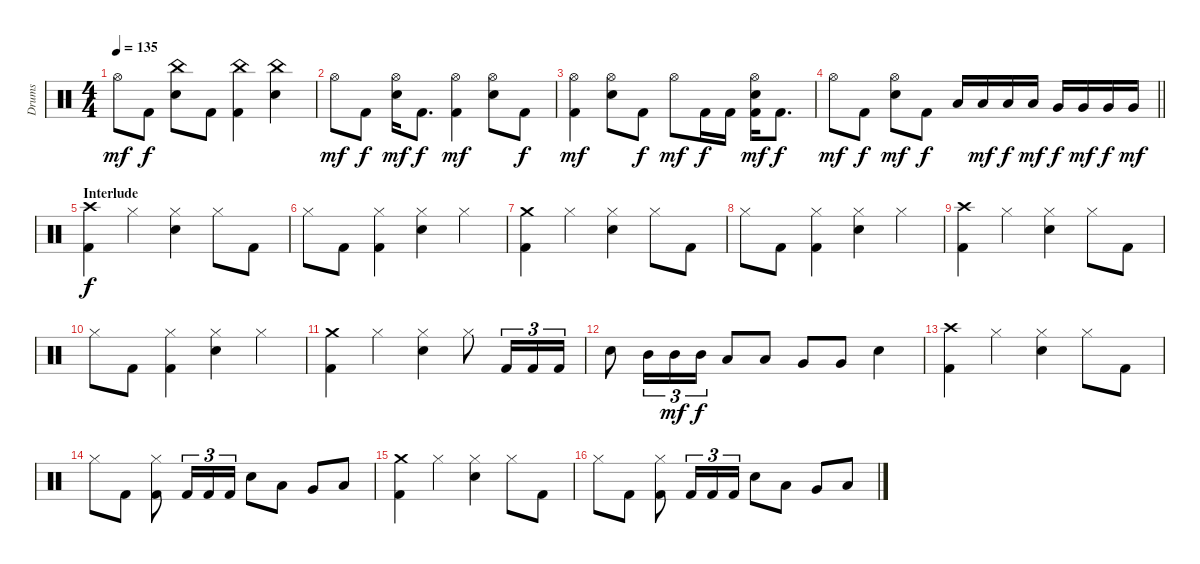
\track ("Drums" "Drums") {instrument percussion}
\staff {score}
\articulation defaults
\ts (4 4)
\tempo 135
\clef neutral
\ks c "Hi-Hat (open)".8{dy mf} "Kick (hit) 2".8{dy f}
("China (hit)" "Electric Snare (hit)").8 "Kick (hit) 2".8 ("Kick (hit) 2" "China (hit)").4 ("China (hit)" "Electric Snare (hit)").4 |
"Hi-Hat (open)".8{dy mf} "Kick (hit) 2".8{dy f} ("Hi-Hat (open)" "Electric Snare (hit)").16{dy mf} "Kick (hit) 2".8{d dy f} ("Kick (hit) 2" "Hi-Hat (open)").4{dy mf} ("Hi-Hat (open)" "Electric Snare (hit)").8 "Kick (hit) 2".8{dy f} |
("Kick (hit) 2" "Hi-Hat (open)").4{dy mf} ("Hi-Hat (open)" "Electric Snare (hit)").8 "Kick (hit) 2".8{dy f} "Hi-Hat (open)".8{dy mf} "Kick (hit) 2".16{dy f} "Kick (hit) 2".16 ("Kick (hit) 2" "Hi-Hat (open)" "Electric Snare (hit)").16{dy mf} "Kick (hit) 2".8{d dy f} |
\barLineRight lightlight "Hi-Hat (open)".8{dy mf} "Kick (hit) 2".8{dy f}
("Hi-Hat (open)" "Electric Snare (hit)").8{dy mf} "Kick (hit) 2".8{dy f} "Low Tom (hit)".16 "Low Tom (hit)".16{dy mf} "Low Tom (hit)".16{dy f} "Low Tom (hit)".16{dy mf} "Very Low Tom (hit)".16{dy f} "Very Low Tom (hit)".16{dy mf} "Very Low Tom (hit)".16{dy f} "Very Low Tom (hit)".16{dy mf} |
\section ("" "Interlude")
("Kick (hit) 2" "Crash high (hit)").4{dy f} "Hi-Hat (closed)".4 ("Hi-Hat (closed)" "Electric Snare (hit)").4 "Hi-Hat (closed)".8 "Kick (hit) 2".8 |
"Hi-Hat (closed)".8 "Kick (hit) 2".8 ("Kick (hit) 2" "Hi-Hat (closed)").4 ("Hi-Hat (closed)" "Electric Snare (hit)").4 "Hi-Hat (closed)".4 |
("Kick (hit) 2" "Crash medium (hit)").4 "Hi-Hat (closed)".4 ("Hi-Hat (closed)" "Electric Snare (hit)").4 "Hi-Hat (closed)".8 "Kick (hit) 2".8 |
"Hi-Hat (closed)".8 "Kick (hit) 2".8 ("Kick (hit) 2" "Hi-Hat (closed)").4 ("Hi-Hat (closed)" "Electric Snare (hit)").4 "Hi-Hat (closed)".4 |
("Kick (hit) 2" "Crash high (hit)").4 "Hi-Hat (closed)".4 ("Hi-Hat (closed)" "Electric Snare (hit)").4 "Hi-Hat (closed)".8 "Kick (hit) 2".8 |
"Hi-Hat (closed)".8 "Kick (hit) 2".8 ("Kick (hit) 2" "Hi-Hat (closed)").4 ("Hi-Hat (closed)" "Electric Snare (hit)").4 "Hi-Hat (closed)".4 |
("Kick (hit) 2" "Crash medium (hit)").4 "Hi-Hat (closed)".4 ("Hi-Hat (closed)" "Electric Snare (hit)").4 "Hi-Hat (closed)".8 "Kick (hit) 2".16{tu (3 2)} "Kick (hit) 2".16{tu (3 2)} "Kick (hit) 2".16{tu (3 2)} |
"Electric Snare (hit)".8 "Mid Tom (hit)".16{tu (3 2)} "Mid Tom (hit)".16{tu (3 2) dy mf} "Mid Tom (hit)".16{tu (3 2) dy f} "Low Tom (hit)".8 "Low Tom (hit)".8 "Very Low Tom (hit)".8 "Very Low Tom (hit)".8 "Electric Snare (hit)".4 |
("Kick (hit) 2" "Crash high (hit)").4 "Hi-Hat (closed)".4 ("Hi-Hat (closed)" "Electric Snare (hit)").4 "Hi-Hat (closed)".8 "Kick (hit) 2".8 |
"Hi-Hat (closed)".8 "Kick (hit) 2".8 ("Kick (hit) 2" "Hi-Hat (closed)").8 "Kick (hit) 2".16{tu (3 2)} "Kick (hit) 2".16{tu (3 2)} "Kick (hit) 2".16{tu (3 2)} "Electric Snare (hit)".8 "Low Tom (hit)".8 "Very Low Tom (hit)".8 "Low Floor Tom (hit)".8 |
("Kick (hit) 2" "Crash medium (hit)").4 "Hi-Hat (closed)".4 ("Hi-Hat (closed)" "Electric Snare (hit)").4 "Hi-Hat (closed)".8 "Kick (hit) 2".8 |
"Hi-Hat (closed)".8 "Kick (hit) 2".8 ("Kick (hit) 2" "Hi-Hat (closed)").8 "Kick (hit) 2".16{tu (3 2)} "Kick (hit) 2".16{tu (3 2)} "Kick (hit) 2".16{tu (3 2)} "Electric Snare (hit)".8 "Low Tom (hit)".8 "Very Low Tom (hit)".8 "Low Floor Tom (hit)".8
